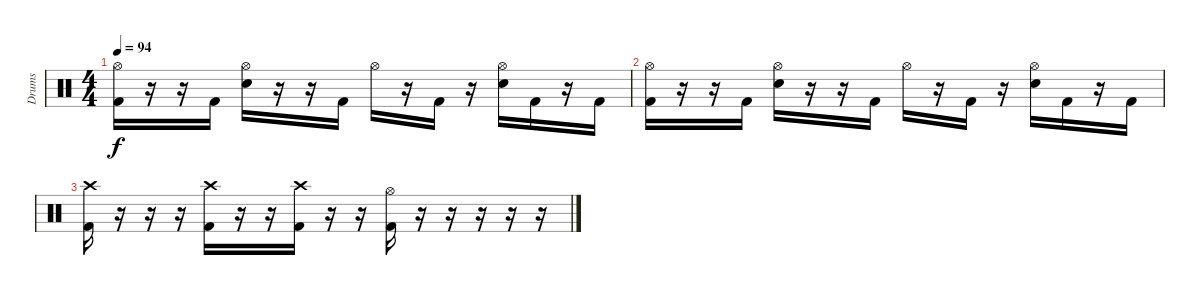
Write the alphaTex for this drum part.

\track ("Drums" "Drums") {instrument percussion}
\staff {score}
\articulation defaults
\ts (4 4)
\tempo 94
\clef neutral
\ks c
("Hi-Hat (open)" "Kick (hit) 2").16{dy f} r.16 r.16 "Kick (hit) 2".16 ("Hi-Hat (open)" "Snare (hit) 2").16 r.16 r.16 "Kick (hit) 2".16 "Hi-Hat (open)".16 r.16 "Kick (hit) 2".16 r.16 ("Hi-Hat (open)" "Snare (hit) 2").16 "Kick (hit) 2".16 r.16 "Kick (hit) 2".16 |
("Hi-Hat (open)" "Kick (hit) 2").16 r.16 r.16 "Kick (hit) 2".16 ("Hi-Hat (open)" "Snare (hit) 2").16 r.16 r.16 "Kick (hit) 2".16 "Hi-Hat (open)".16 r.16 "Kick (hit) 2".16 r.16 ("Hi-Hat (open)" "Snare (hit) 2").16 "Kick (hit) 2".16 r.16 "Kick (hit) 2".16 |
("Crash high (hit)" "Kick (hit) 2").16 r.16 r.16 r.16 ("Crash high (hit)" "Kick (hit) 2").16 r.16 r.16 ("Crash high (hit)" "Kick (hit) 2").16 r.16 r.16 ("Hi-Hat (open)" "Kick (hit) 2").16 r.16 r.16 r.16 r.16 r.16
